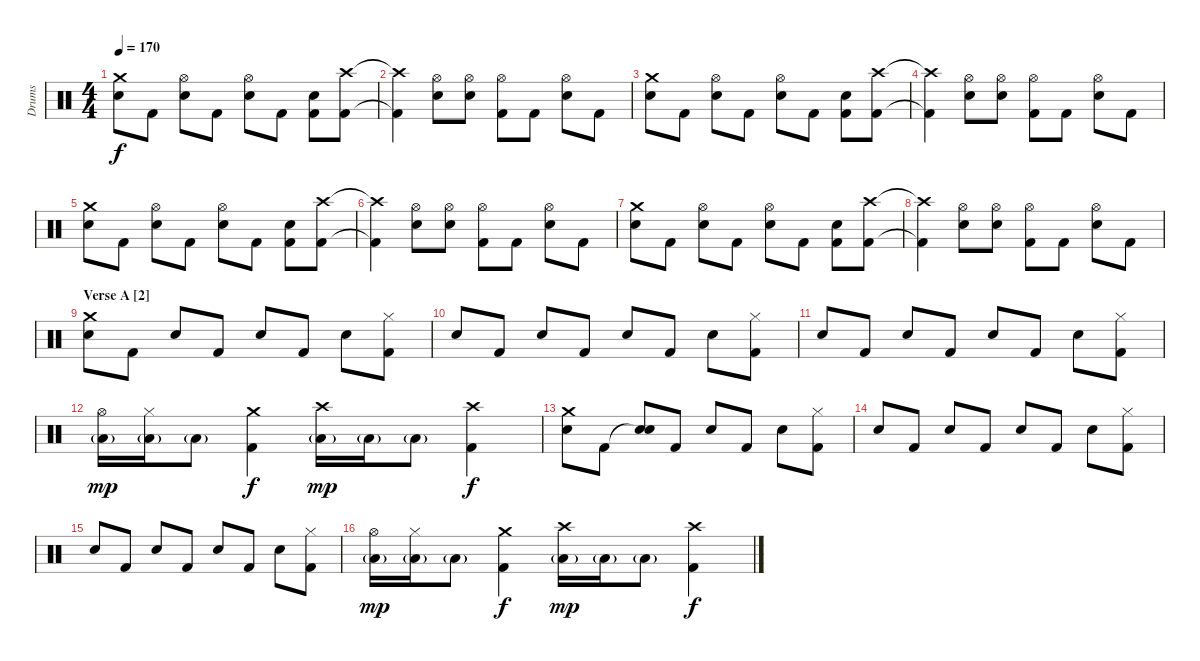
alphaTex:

\track ("Drums" "Drums") {instrument percussion}
\staff {score}
\articulation defaults
\ts (4 4)
\tempo 170
\clef neutral
\ks c
("Crash medium (hit)" "Electric Snare (hit)").8{dy f} "Kick (hit) 2".8 ("Hi-Hat (open)" "Electric Snare (hit)").8 "Kick (hit) 2".8 ("Hi-Hat (open)" "Electric Snare (hit)").8 "Kick (hit) 2".8 ("Electric Snare (hit)" "Kick (hit) 2").8 ("Crash high (hit)" "Kick (hit) 2").8 |
("Crash high (hit)"{t} "Kick (hit) 2"{t}).4 ("Hi-Hat (open)" "Electric Snare (hit)").8 ("Hi-Hat (open)" "Electric Snare (hit)").8 ("Hi-Hat (open)" "Kick (hit) 2").8 "Kick (hit) 2".8 ("Hi-Hat (open)" "Electric Snare (hit)").8 "Kick (hit) 2".8 |
("Crash medium (hit)" "Electric Snare (hit)").8 "Kick (hit) 2".8 ("Hi-Hat (open)" "Electric Snare (hit)").8 "Kick (hit) 2".8 ("Hi-Hat (open)" "Electric Snare (hit)").8 "Kick (hit) 2".8 ("Electric Snare (hit)" "Kick (hit) 2").8 ("Crash high (hit)" "Kick (hit) 2").8 |
("Crash high (hit)"{t} "Kick (hit) 2"{t}).4 ("Hi-Hat (open)" "Electric Snare (hit)").8 ("Hi-Hat (open)" "Electric Snare (hit)").8 ("Hi-Hat (open)" "Kick (hit) 2").8 "Kick (hit) 2".8 ("Hi-Hat (open)" "Electric Snare (hit)").8 "Kick (hit) 2".8 |
("Crash medium (hit)" "Electric Snare (hit)").8 "Kick (hit) 2".8 ("Hi-Hat (open)" "Electric Snare (hit)").8 "Kick (hit) 2".8 ("Hi-Hat (open)" "Electric Snare (hit)").8 "Kick (hit) 2".8 ("Electric Snare (hit)" "Kick (hit) 2").8 ("Crash high (hit)" "Kick (hit) 2").8 |
("Crash high (hit)"{t} "Kick (hit) 2"{t}).4 ("Hi-Hat (open)" "Electric Snare (hit)").8 ("Hi-Hat (open)" "Electric Snare (hit)").8 ("Hi-Hat (open)" "Kick (hit) 2").8 "Kick (hit) 2".8 ("Hi-Hat (open)" "Electric Snare (hit)").8 "Kick (hit) 2".8 |
("Crash medium (hit)" "Electric Snare (hit)").8 "Kick (hit) 2".8 ("Hi-Hat (open)" "Electric Snare (hit)").8 "Kick (hit) 2".8 ("Hi-Hat (open)" "Electric Snare (hit)").8 "Kick (hit) 2".8 ("Electric Snare (hit)" "Kick (hit) 2").8 ("Crash high (hit)" "Kick (hit) 2").8 |
("Crash high (hit)"{t} "Kick (hit) 2"{t}).4 ("Hi-Hat (open)" "Electric Snare (hit)").8 ("Hi-Hat (open)" "Electric Snare (hit)").8 ("Hi-Hat (open)" "Kick (hit) 2").8 "Kick (hit) 2".8 ("Hi-Hat (open)" "Electric Snare (hit)").8 "Kick (hit) 2".8 |
\section ("" "Verse A [2]")
("Crash medium (hit)" "Electric Snare (hit)").8 "Kick (hit) 2".8 "Electric Snare (hit)".8 "Kick (hit) 2".8 "Electric Snare (hit)".8 "Kick (hit) 2".8 "Electric Snare (hit)".8 ("Hi-Hat (closed)" "Kick (hit) 2").8 |
"Electric Snare (hit)".8 "Kick (hit) 2".8 "Electric Snare (hit)".8 "Kick (hit) 2".8 "Electric Snare (hit)".8 "Kick (hit) 2".8 "Electric Snare (hit)".8 ("Hi-Hat (closed)" "Kick (hit) 2").8 |
"Electric Snare (hit)".8 "Kick (hit) 2".8 "Electric Snare (hit)".8 "Kick (hit) 2".8 "Electric Snare (hit)".8 "Kick (hit) 2".8 "Electric Snare (hit)".8 ("Hi-Hat (closed)" "Kick (hit) 2").8 |
("Hi-Hat (open)" "Low Tom (hit)"{g}).16{dy mp} ("Hi-Hat (closed)" "Low Tom (hit)"{g}).16 "Low Tom (hit)"{g}.8 ("Crash medium (hit)" "Kick (hit) 2").4{dy f} ("Crash high (hit)" "Low Tom (hit)"{g}).16{dy mp} "Low Tom (hit)"{g}.16 "Low Tom (hit)"{g}.8 ("Crash high (hit)" "Kick (hit) 2").4{dy f} |
("Crash medium (hit)" "Electric Snare (hit)").8 "Kick (hit) 2".8 ("Snare (hit)"{t} "Electric Snare (hit)").8 "Kick (hit) 2".8 "Electric Snare (hit)".8 "Kick (hit) 2".8 "Electric Snare (hit)".8 ("Hi-Hat (closed)" "Kick (hit) 2").8 |
"Electric Snare (hit)".8 "Kick (hit) 2".8 "Electric Snare (hit)".8 "Kick (hit) 2".8 "Electric Snare (hit)".8 "Kick (hit) 2".8 "Electric Snare (hit)".8 ("Hi-Hat (closed)" "Kick (hit) 2").8 |
"Electric Snare (hit)".8 "Kick (hit) 2".8 "Electric Snare (hit)".8 "Kick (hit) 2".8 "Electric Snare (hit)".8 "Kick (hit) 2".8 "Electric Snare (hit)".8 ("Hi-Hat (closed)" "Kick (hit) 2").8 |
("Hi-Hat (open)" "Low Tom (hit)"{g}).16{dy mp} ("Hi-Hat (closed)" "Low Tom (hit)"{g}).16 "Low Tom (hit)"{g}.8 ("Crash medium (hit)" "Kick (hit) 2").4{dy f} ("Crash high (hit)" "Low Tom (hit)"{g}).16{dy mp} "Low Tom (hit)"{g}.16 "Low Tom (hit)"{g}.8 ("Crash high (hit)" "Kick (hit) 2").4{dy f}
